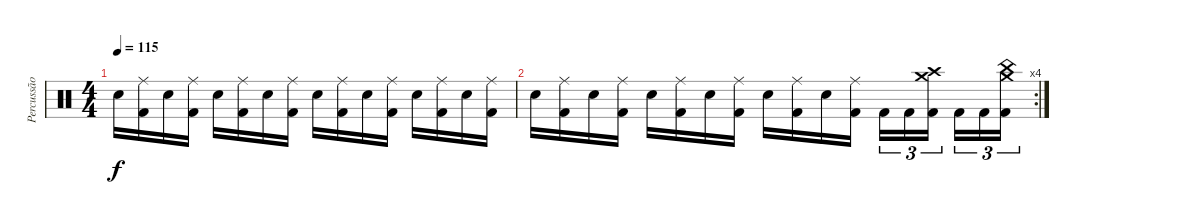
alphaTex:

\track ("Percussão" "Percussão") {instrument percussion}
\staff {score}
\articulation defaults
\ts (4 4)
\tempo 115
\clef neutral
\ks c "Electric Snare (hit)".16{dy f}
("Ride (middle)" "Kick (hit) 2").16 "Electric Snare (hit)".16 ("Ride (middle)" "Kick (hit) 2").16 "Electric Snare (hit)".16 ("Ride (middle)" "Kick (hit) 2").16 "Electric Snare (hit)".16 ("Ride (middle)" "Kick (hit) 2").16 "Electric Snare (hit)".16 ("Ride (middle)" "Kick (hit) 2").16 "Electric Snare (hit)".16 ("Ride (middle)" "Kick (hit) 2").16 "Electric Snare (hit)".16 ("Ride (middle)" "Kick (hit) 2").16 "Electric Snare (hit)".16 ("Ride (middle)" "Kick (hit) 2").16 |
\rc 4 "Electric Snare (hit)".16
("Ride (middle)" "Kick (hit) 2").16 "Electric Snare (hit)".16 ("Ride (middle)" "Kick (hit) 2").16 "Electric Snare (hit)".16 ("Ride (middle)" "Kick (hit) 2").16 "Electric Snare (hit)".16 ("Ride (middle)" "Kick (hit) 2").16 "Electric Snare (hit)".16 ("Ride (middle)" "Kick (hit) 2").16 "Electric Snare (hit)".16 ("Ride (middle)" "Kick (hit) 2").16 "Kick (hit) 2".16{tu (3 2)} "Kick (hit) 2".16{tu (3 2)} ("Crash high (hit)" "Crash medium (hit)" "Kick (hit) 2").16{tu (3 2)} "Kick (hit) 2".16{tu (3 2)} "Kick (hit) 2".16{tu (3 2)} ("China (hit)" "Crash medium (hit)" "Kick (hit) 2").16{tu (3 2)}
